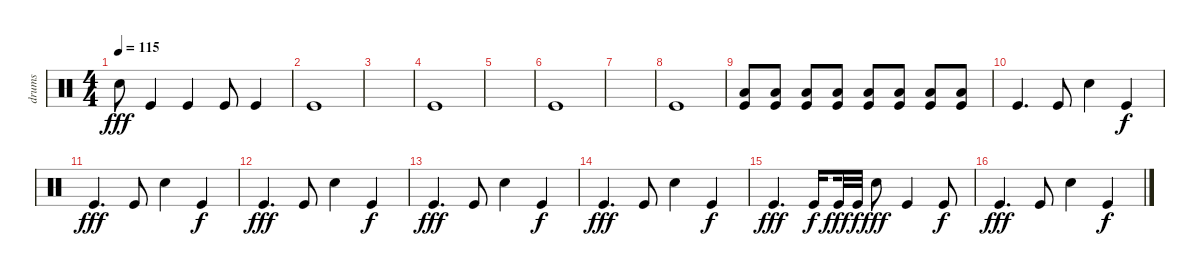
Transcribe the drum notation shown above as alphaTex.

\track ("drums" "drums") {instrument percussion}
\staff {score}
\articulation defaults
\ts (4 4)
\tempo 115
\clef neutral
\ks c "Electric Snare (hit)".8{dy fff} "Kick (hit)".4 "Kick (hit)".4 "Kick (hit)".8 "Kick (hit)".4
|
"Kick (hit)".1 |
|
"Kick (hit)".1 |
|
"Kick (hit)".1 |
|
"Kick (hit)".1 |
("Low Floor Tom (hit)" "Kick (hit)").8 ("Low Floor Tom (hit)" "Kick (hit)").8 ("Low Floor Tom (hit)" "Kick (hit)").8 ("Low Floor Tom (hit)" "Kick (hit)").8 ("Low Floor Tom (hit)" "Kick (hit)").8 ("Low Floor Tom (hit)" "Kick (hit)").8 ("Low Floor Tom (hit)" "Kick (hit)").8 ("Low Floor Tom (hit)" "Kick (hit)").8 |
"Kick (hit)".4{d} "Kick (hit)".8 "Electric Snare (hit)".4 "Kick (hit)".4{dy f} |
"Kick (hit)".4{d dy fff} "Kick (hit)".8 "Electric Snare (hit)".4 "Kick (hit)".4{dy f} |
"Kick (hit)".4{d dy fff} "Kick (hit)".8 "Electric Snare (hit)".4 "Kick (hit)".4{dy f} |
"Kick (hit)".4{d dy fff} "Kick (hit)".8 "Electric Snare (hit)".4 "Kick (hit)".4{dy f} |
"Kick (hit)".4{d dy fff} "Kick (hit)".8 "Electric Snare (hit)".4 "Kick (hit)".4{dy f} |
"Kick (hit)".4{d dy fff} "Kick (hit)".16{dy f beam splitsecondary} "Kick (hit)".32{dy fff} "Kick (hit)".32{dy f} "Electric Snare (hit)".8{dy fff} "Kick (hit)".4 "Kick (hit)".8{dy f} |
"Kick (hit)".4{d dy fff} "Kick (hit)".8 "Electric Snare (hit)".4 "Kick (hit)".4{dy f}
